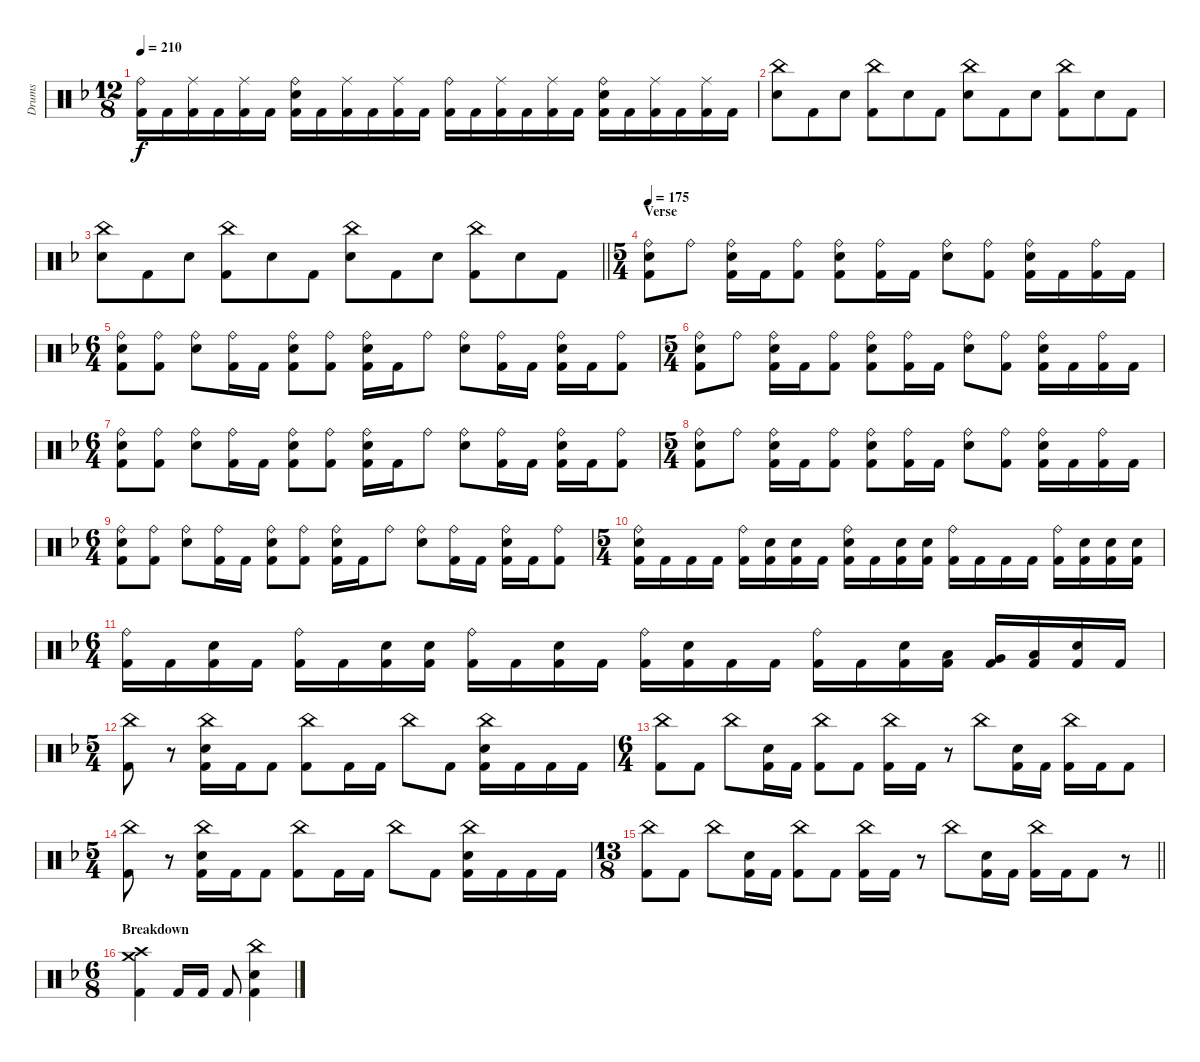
\track ("Drums" "Drums") {instrument percussion}
\staff {score}
\articulation defaults
\ts (12 8)
\tempo 210
\clef neutral
\ks dminor
("Ride (bell)" "Kick (hit) 2").16{dy f} "Kick (hit) 2".16 ("Ride (middle)" "Kick (hit) 2").16 "Kick (hit) 2".16 ("Ride (middle)" "Kick (hit) 2").16 "Kick (hit) 2".16 ("Ride (bell)" "Electric Snare (hit)" "Kick (hit) 2").16 "Kick (hit) 2".16 ("Ride (middle)" "Kick (hit) 2").16 "Kick (hit) 2".16 ("Ride (middle)" "Kick (hit) 2").16 "Kick (hit) 2".16 ("Ride (bell)" "Kick (hit) 2").16 "Kick (hit) 2".16 ("Ride (middle)" "Kick (hit) 2").16 "Kick (hit) 2".16 ("Ride (middle)" "Kick (hit) 2").16 "Kick (hit) 2".16 ("Ride (bell)" "Electric Snare (hit)" "Kick (hit) 2").16 "Kick (hit) 2".16 ("Ride (middle)" "Kick (hit) 2").16 "Kick (hit) 2".16 ("Ride (middle)" "Kick (hit) 2").16 "Kick (hit) 2".16 |
("China (hit)" "Electric Snare (hit)").8 "Kick (hit) 2".8 "Electric Snare (hit)".8 ("China (hit)" "Kick (hit) 2").8 "Electric Snare (hit)".8 "Kick (hit) 2".8 ("China (hit)" "Electric Snare (hit)").8 "Kick (hit) 2".8 "Electric Snare (hit)".8 ("China (hit)" "Kick (hit) 2").8 "Electric Snare (hit)".8 "Kick (hit) 2".8 |
\barLineRight lightlight
("China (hit)" "Electric Snare (hit)").8 "Kick (hit) 2".8 "Electric Snare (hit)".8 ("China (hit)" "Kick (hit) 2").8 "Electric Snare (hit)".8 "Kick (hit) 2".8 ("China (hit)" "Electric Snare (hit)").8 "Kick (hit) 2".8 "Electric Snare (hit)".8 ("China (hit)" "Kick (hit) 2").8 "Electric Snare (hit)".8 "Kick (hit) 2".8 |
\ts (5 4)
\section ("" "Verse")
\tempo 175
("Ride (bell)" "Electric Snare (hit)" "Kick (hit) 2").8 "Ride (bell)".8 ("Ride (bell)" "Electric Snare (hit)" "Kick (hit) 2").16 "Kick (hit) 2".16 ("Ride (bell)" "Kick (hit) 2").8 ("Ride (bell)" "Electric Snare (hit)" "Kick (hit) 2").8 ("Ride (bell)" "Kick (hit) 2").16 "Kick (hit) 2".16 ("Ride (bell)" "Electric Snare (hit)").8 ("Ride (bell)" "Kick (hit) 2").8 ("Ride (bell)" "Electric Snare (hit)" "Kick (hit) 2").16 "Kick (hit) 2".16 ("Ride (bell)" "Kick (hit) 2").16 "Kick (hit) 2".16 |
\ts (6 4)
("Ride (bell)" "Electric Snare (hit)" "Kick (hit) 2").8 ("Ride (bell)" "Kick (hit) 2").8 ("Ride (bell)" "Electric Snare (hit)").8 ("Ride (bell)" "Kick (hit) 2").16 "Kick (hit) 2".16 ("Ride (bell)" "Electric Snare (hit)" "Kick (hit) 2").8 ("Ride (bell)" "Kick (hit) 2").8 ("Ride (bell)" "Electric Snare (hit)" "Kick (hit) 2").16 "Kick (hit) 2".16 "Ride (bell)".8 ("Ride (bell)" "Electric Snare (hit)").8 ("Ride (bell)" "Kick (hit) 2").16 "Kick (hit) 2".16 ("Ride (bell)" "Electric Snare (hit)" "Kick (hit) 2").16 "Kick (hit) 2".16 ("Ride (bell)" "Kick (hit) 2").8 |
\ts (5 4)
("Ride (bell)" "Electric Snare (hit)" "Kick (hit) 2").8 "Ride (bell)".8 ("Ride (bell)" "Electric Snare (hit)" "Kick (hit) 2").16 "Kick (hit) 2".16 ("Ride (bell)" "Kick (hit) 2").8 ("Ride (bell)" "Electric Snare (hit)" "Kick (hit) 2").8 ("Ride (bell)" "Kick (hit) 2").16 "Kick (hit) 2".16 ("Ride (bell)" "Electric Snare (hit)").8 ("Ride (bell)" "Kick (hit) 2").8 ("Ride (bell)" "Electric Snare (hit)" "Kick (hit) 2").16 "Kick (hit) 2".16 ("Ride (bell)" "Kick (hit) 2").16 "Kick (hit) 2".16 |
\ts (6 4)
("Ride (bell)" "Electric Snare (hit)" "Kick (hit) 2").8 ("Ride (bell)" "Kick (hit) 2").8 ("Ride (bell)" "Electric Snare (hit)").8 ("Ride (bell)" "Kick (hit) 2").16 "Kick (hit) 2".16 ("Ride (bell)" "Electric Snare (hit)" "Kick (hit) 2").8 ("Ride (bell)" "Kick (hit) 2").8 ("Ride (bell)" "Electric Snare (hit)" "Kick (hit) 2").16 "Kick (hit) 2".16 "Ride (bell)".8 ("Ride (bell)" "Electric Snare (hit)").8 ("Ride (bell)" "Kick (hit) 2").16 "Kick (hit) 2".16 ("Ride (bell)" "Electric Snare (hit)" "Kick (hit) 2").16 "Kick (hit) 2".16 ("Ride (bell)" "Kick (hit) 2").8 |
\ts (5 4)
("Ride (bell)" "Electric Snare (hit)" "Kick (hit) 2").8 "Ride (bell)".8 ("Ride (bell)" "Electric Snare (hit)" "Kick (hit) 2").16 "Kick (hit) 2".16 ("Ride (bell)" "Kick (hit) 2").8 ("Ride (bell)" "Electric Snare (hit)" "Kick (hit) 2").8 ("Ride (bell)" "Kick (hit) 2").16 "Kick (hit) 2".16 ("Ride (bell)" "Electric Snare (hit)").8 ("Ride (bell)" "Kick (hit) 2").8 ("Ride (bell)" "Electric Snare (hit)" "Kick (hit) 2").16 "Kick (hit) 2".16 ("Ride (bell)" "Kick (hit) 2").16 "Kick (hit) 2".16 |
\ts (6 4)
("Ride (bell)" "Electric Snare (hit)" "Kick (hit) 2").8 ("Ride (bell)" "Kick (hit) 2").8 ("Ride (bell)" "Electric Snare (hit)").8 ("Ride (bell)" "Kick (hit) 2").16 "Kick (hit) 2".16 ("Ride (bell)" "Electric Snare (hit)" "Kick (hit) 2").8 ("Ride (bell)" "Kick (hit) 2").8 ("Ride (bell)" "Electric Snare (hit)" "Kick (hit) 2").16 "Kick (hit) 2".16 "Ride (bell)".8 ("Ride (bell)" "Electric Snare (hit)").8 ("Ride (bell)" "Kick (hit) 2").16 "Kick (hit) 2".16 ("Ride (bell)" "Electric Snare (hit)" "Kick (hit) 2").16 "Kick (hit) 2".16 ("Ride (bell)" "Kick (hit) 2").8 |
\ts (5 4)
("Ride (bell)" "Electric Snare (hit)" "Kick (hit) 2").16 "Kick (hit) 2".16 "Kick (hit) 2".16 "Kick (hit) 2".16 ("Ride (bell)" "Kick (hit) 2").16 ("Electric Snare (hit)" "Kick (hit) 2").16 ("Electric Snare (hit)" "Kick (hit) 2").16 "Kick (hit) 2".16 ("Ride (bell)" "Electric Snare (hit)" "Kick (hit) 2").16 "Kick (hit) 2".16 ("Electric Snare (hit)" "Kick (hit) 2").16 ("Electric Snare (hit)" "Kick (hit) 2").16 ("Ride (bell)" "Kick (hit) 2").16 "Kick (hit) 2".16 "Kick (hit) 2".16 "Kick (hit) 2".16 ("Ride (bell)" "Kick (hit) 2").16 ("Electric Snare (hit)" "Kick (hit) 2").16 ("Electric Snare (hit)" "Kick (hit) 2").16 ("Electric Snare (hit)" "Kick (hit) 2").16 |
\ts (6 4)
("Ride (bell)" "Kick (hit) 2").16 "Kick (hit) 2".16 ("Electric Snare (hit)" "Kick (hit) 2").16 "Kick (hit) 2".16 ("Ride (bell)" "Kick (hit) 2").16 "Kick (hit) 2".16 ("Electric Snare (hit)" "Kick (hit) 2").16 ("Electric Snare (hit)" "Kick (hit) 2").16 ("Ride (bell)" "Kick (hit) 2").16 "Kick (hit) 2".16 ("Electric Snare (hit)" "Kick (hit) 2").16 "Kick (hit) 2".16 ("Ride (bell)" "Kick (hit) 2").16 ("Electric Snare (hit)" "Kick (hit) 2").16 "Kick (hit) 2".16 "Kick (hit) 2".16 ("Ride (bell)" "Kick (hit) 2").16 "Kick (hit) 2".16 ("Electric Snare (hit)" "Kick (hit) 2").16 ("Low Tom (hit)" "Kick (hit) 2").16 ("Very Low Tom (hit)" "Kick (hit) 2").16 ("Low Floor Tom (hit)" "Kick (hit) 2").16 ("Electric Snare (hit)" "Kick (hit) 2").16 "Kick (hit) 2".16 |
\ts (5 4)
("China (hit)" "Kick (hit) 2").8 r.8 ("China (hit)" "Electric Snare (hit)" "Kick (hit) 2").16 "Kick (hit) 2".16 "Kick (hit) 2".8 ("China (hit)" "Kick (hit) 2").8 "Kick (hit) 2".16 "Kick (hit) 2".16 "China (hit)".8 "Kick (hit) 2".8 ("China (hit)" "Electric Snare (hit)" "Kick (hit) 2").16 "Kick (hit) 2".16 "Kick (hit) 2".16 "Kick (hit) 2".16 |
\ts (6 4)
("China (hit)" "Kick (hit) 2").8 "Kick (hit) 2".8 "China (hit)".8 ("Electric Snare (hit)" "Kick (hit) 2").16 "Kick (hit) 2".16 ("China (hit)" "Kick (hit) 2").8 "Kick (hit) 2".8 ("China (hit)" "Kick (hit) 2").16 "Kick (hit) 2".16 r.8 "China (hit)".8 ("Electric Snare (hit)" "Kick (hit) 2").16 "Kick (hit) 2".16 ("China (hit)" "Kick (hit) 2").16 "Kick (hit) 2".16 "Kick (hit) 2".8 |
\ts (5 4)
("China (hit)" "Kick (hit) 2").8 r.8 ("China (hit)" "Electric Snare (hit)" "Kick (hit) 2").16 "Kick (hit) 2".16 "Kick (hit) 2".8 ("China (hit)" "Kick (hit) 2").8 "Kick (hit) 2".16 "Kick (hit) 2".16 "China (hit)".8 "Kick (hit) 2".8 ("China (hit)" "Electric Snare (hit)" "Kick (hit) 2").16 "Kick (hit) 2".16 "Kick (hit) 2".16 "Kick (hit) 2".16 |
\ts (13 8)
\barLineRight lightlight
("China (hit)" "Kick (hit) 2").8 "Kick (hit) 2".8 "China (hit)".8 ("Electric Snare (hit)" "Kick (hit) 2").16 "Kick (hit) 2".16 ("China (hit)" "Kick (hit) 2").8 "Kick (hit) 2".8 ("China (hit)" "Kick (hit) 2").16 "Kick (hit) 2".16 r.8 "China (hit)".8 ("Electric Snare (hit)" "Kick (hit) 2").16 "Kick (hit) 2".16 ("China (hit)" "Kick (hit) 2").16 "Kick (hit) 2".16 "Kick (hit) 2".8 r.8{volume 0} |
\ts (6 8)
\section ("" "Breakdown")
("Crash medium (hit)" "Crash high (hit)" "Kick (hit) 2").4{volume 14} "Kick (hit) 2".16 "Kick (hit) 2".16 "Kick (hit) 2".8 ("China (hit)" "Electric Snare (hit)" "Kick (hit) 2").4
